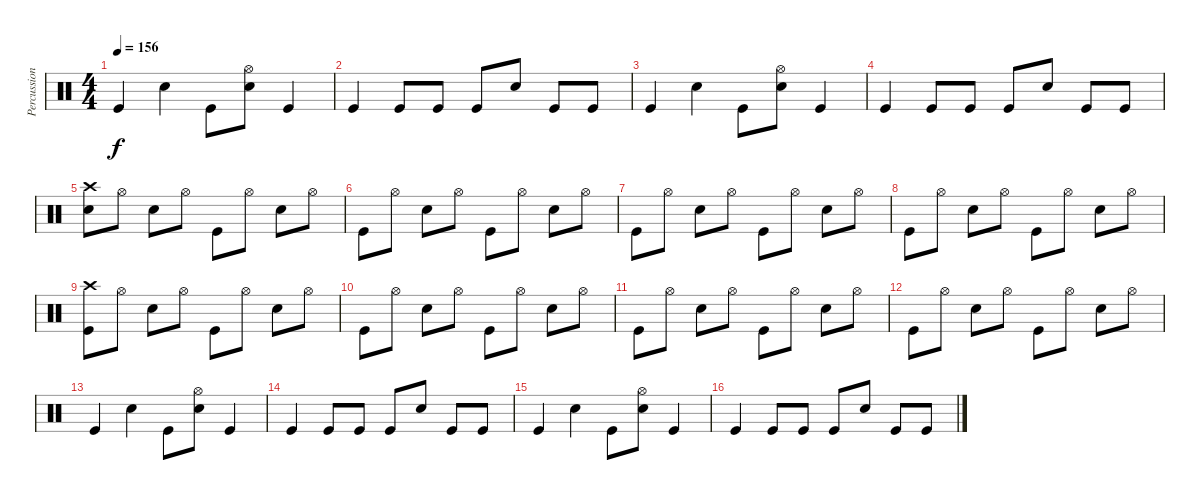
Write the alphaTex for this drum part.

\track ("Percussion" "Percussion") {instrument percussion}
\staff {score}
\articulation defaults
\ts (4 4)
\tempo 156
\clef neutral
\ks c "Kick (hit)".4{dy f} "Electric Snare (hit)".4 "Kick (hit)".8
("Hi-Hat (open)" "Electric Snare (hit)").8 "Kick (hit)".4 |
"Kick (hit)".4 "Kick (hit)".8 "Kick (hit)".8 "Kick (hit)".8 "Electric Snare (hit)".8 "Kick (hit)".8 "Kick (hit)".8 |
"Kick (hit)".4 "Electric Snare (hit)".4 "Kick (hit)".8 ("Hi-Hat (open)" "Electric Snare (hit)").8 "Kick (hit)".4 |
"Kick (hit)".4 "Kick (hit)".8 "Kick (hit)".8 "Kick (hit)".8 "Electric Snare (hit)".8 "Kick (hit)".8 "Kick (hit)".8 |
("Crash high (hit)" "Electric Snare (hit)").8 "Hi-Hat (open)".8 "Electric Snare (hit)".8 "Hi-Hat (open)".8 "Kick (hit)".8 "Hi-Hat (open)".8 "Electric Snare (hit)".8 "Hi-Hat (open)".8 |
"Kick (hit)".8 "Hi-Hat (open)".8 "Electric Snare (hit)".8 "Hi-Hat (open)".8 "Kick (hit)".8 "Hi-Hat (open)".8 "Electric Snare (hit)".8 "Hi-Hat (open)".8 |
"Kick (hit)".8 "Hi-Hat (open)".8 "Electric Snare (hit)".8 "Hi-Hat (open)".8 "Kick (hit)".8 "Hi-Hat (open)".8 "Electric Snare (hit)".8 "Hi-Hat (open)".8 |
"Kick (hit)".8 "Hi-Hat (open)".8 "Electric Snare (hit)".8 "Hi-Hat (open)".8 "Kick (hit)".8 "Hi-Hat (open)".8 "Electric Snare (hit)".8 "Hi-Hat (open)".8 |
("Crash high (hit)" "Kick (hit)").8 "Hi-Hat (open)".8 "Electric Snare (hit)".8 "Hi-Hat (open)".8 "Kick (hit)".8 "Hi-Hat (open)".8 "Electric Snare (hit)".8 "Hi-Hat (open)".8 |
"Kick (hit)".8 "Hi-Hat (open)".8 "Electric Snare (hit)".8 "Hi-Hat (open)".8 "Kick (hit)".8 "Hi-Hat (open)".8 "Electric Snare (hit)".8 "Hi-Hat (open)".8 |
"Kick (hit)".8 "Hi-Hat (open)".8 "Electric Snare (hit)".8 "Hi-Hat (open)".8 "Kick (hit)".8 "Hi-Hat (open)".8 "Electric Snare (hit)".8 "Hi-Hat (open)".8 |
"Kick (hit)".8 "Hi-Hat (open)".8 "Electric Snare (hit)".8 "Hi-Hat (open)".8 "Kick (hit)".8 "Hi-Hat (open)".8 "Electric Snare (hit)".8 "Hi-Hat (open)".8 |
"Kick (hit)".4 "Electric Snare (hit)".4 "Kick (hit)".8 ("Hi-Hat (open)" "Electric Snare (hit)").8 "Kick (hit)".4 |
"Kick (hit)".4 "Kick (hit)".8 "Kick (hit)".8 "Kick (hit)".8 "Electric Snare (hit)".8 "Kick (hit)".8 "Kick (hit)".8 |
"Kick (hit)".4 "Electric Snare (hit)".4 "Kick (hit)".8 ("Hi-Hat (open)" "Electric Snare (hit)").8 "Kick (hit)".4 |
"Kick (hit)".4 "Kick (hit)".8 "Kick (hit)".8 "Kick (hit)".8 "Electric Snare (hit)".8 "Kick (hit)".8 "Kick (hit)".8
